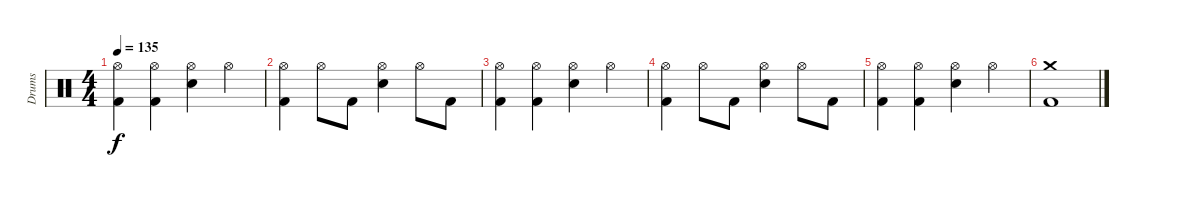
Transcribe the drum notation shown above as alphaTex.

\track ("Drums" "Drums") {instrument percussion}
\staff {score}
\articulation defaults
\ts (4 4)
\tempo 135
\clef neutral
\ks c
("Hi-Hat (open)" "Kick (hit) 2").4{dy f} ("Hi-Hat (open)" "Kick (hit) 2").4 ("Hi-Hat (open)" "Electric Snare (hit)").4 "Hi-Hat (open)".4 |
("Hi-Hat (open)" "Kick (hit) 2").4 "Hi-Hat (open)".8 "Kick (hit) 2".8 ("Hi-Hat (open)" "Electric Snare (hit)").4 "Hi-Hat (open)".8 "Kick (hit) 2".8 |
("Hi-Hat (open)" "Kick (hit) 2").4 ("Hi-Hat (open)" "Kick (hit) 2").4 ("Hi-Hat (open)" "Electric Snare (hit)").4 "Hi-Hat (open)".4 |
("Hi-Hat (open)" "Kick (hit) 2").4 "Hi-Hat (open)".8 "Kick (hit) 2".8 ("Hi-Hat (open)" "Electric Snare (hit)").4 "Hi-Hat (open)".8 "Kick (hit) 2".8 |
("Hi-Hat (open)" "Kick (hit) 2").4 ("Hi-Hat (open)" "Kick (hit) 2").4 ("Hi-Hat (open)" "Electric Snare (hit)").4 "Hi-Hat (open)".4 |
("Crash medium (hit)" "Kick (hit) 2").1
